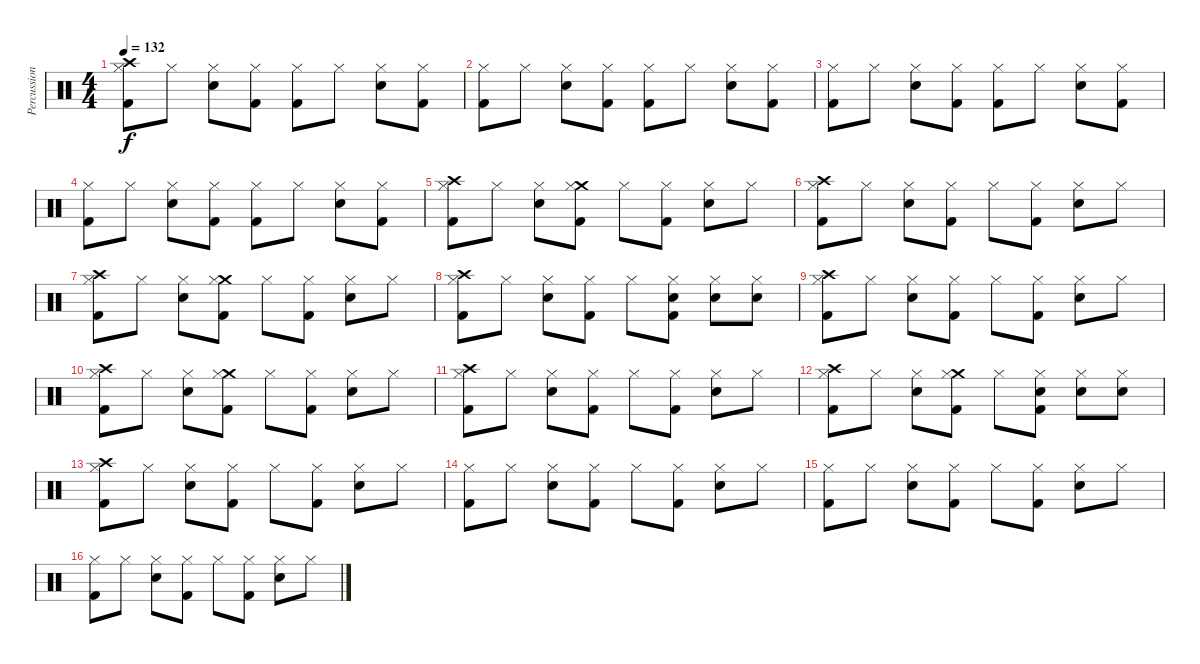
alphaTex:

\track ("Percussion" "Percussion") {instrument percussion}
\staff {score}
\articulation defaults
\ts (4 4)
\tempo 132
\clef neutral
\ks c
("Crash high (hit)" "Hi-Hat (closed)" "Kick (hit) 2").8{dy f} "Hi-Hat (closed)".8 ("Hi-Hat (closed)" "Snare (hit) 2").8 ("Hi-Hat (closed)" "Kick (hit) 2").8 ("Hi-Hat (closed)" "Kick (hit) 2").8 "Hi-Hat (closed)".8 ("Hi-Hat (closed)" "Snare (hit) 2").8 ("Hi-Hat (closed)" "Kick (hit) 2").8 |
("Hi-Hat (closed)" "Kick (hit) 2").8 "Hi-Hat (closed)".8 ("Hi-Hat (closed)" "Snare (hit) 2").8 ("Hi-Hat (closed)" "Kick (hit) 2").8 ("Hi-Hat (closed)" "Kick (hit) 2").8 "Hi-Hat (closed)".8 ("Hi-Hat (closed)" "Snare (hit) 2").8 ("Hi-Hat (closed)" "Kick (hit) 2").8 |
("Hi-Hat (closed)" "Kick (hit) 2").8 "Hi-Hat (closed)".8 ("Hi-Hat (closed)" "Snare (hit) 2").8 ("Hi-Hat (closed)" "Kick (hit) 2").8 ("Hi-Hat (closed)" "Kick (hit) 2").8 "Hi-Hat (closed)".8 ("Hi-Hat (closed)" "Snare (hit) 2").8 ("Hi-Hat (closed)" "Kick (hit) 2").8 |
("Hi-Hat (closed)" "Kick (hit) 2").8 "Hi-Hat (closed)".8 ("Hi-Hat (closed)" "Snare (hit) 2").8 ("Hi-Hat (closed)" "Kick (hit) 2").8 ("Hi-Hat (closed)" "Kick (hit) 2").8 "Hi-Hat (closed)".8 ("Hi-Hat (closed)" "Snare (hit) 2").8 ("Hi-Hat (closed)" "Kick (hit) 2").8 |
("Crash high (hit)" "Hi-Hat (closed)" "Kick (hit) 2").8 "Hi-Hat (closed)".8 ("Hi-Hat (closed)" "Snare (hit) 2").8 ("Crash medium (hit)" "Hi-Hat (closed)" "Kick (hit) 2").8 "Hi-Hat (closed)".8 ("Hi-Hat (closed)" "Kick (hit) 2").8 ("Hi-Hat (closed)" "Snare (hit) 2").8 "Hi-Hat (closed)".8 |
("Crash high (hit)" "Hi-Hat (closed)" "Kick (hit) 2").8 "Hi-Hat (closed)".8 ("Hi-Hat (closed)" "Snare (hit) 2").8 ("Hi-Hat (closed)" "Kick (hit) 2").8 "Hi-Hat (closed)".8 ("Hi-Hat (closed)" "Kick (hit) 2").8 ("Hi-Hat (closed)" "Snare (hit) 2").8 "Hi-Hat (closed)".8 |
("Crash high (hit)" "Hi-Hat (closed)" "Kick (hit) 2").8 "Hi-Hat (closed)".8 ("Hi-Hat (closed)" "Snare (hit) 2").8 ("Crash medium (hit)" "Hi-Hat (closed)" "Kick (hit) 2").8 "Hi-Hat (closed)".8 ("Hi-Hat (closed)" "Kick (hit) 2").8 ("Hi-Hat (closed)" "Snare (hit) 2").8 "Hi-Hat (closed)".8 |
("Crash high (hit)" "Hi-Hat (closed)" "Kick (hit) 2").8 "Hi-Hat (closed)".8 ("Hi-Hat (closed)" "Snare (hit) 2").8 ("Hi-Hat (closed)" "Kick (hit) 2").8 "Hi-Hat (closed)".8 ("Hi-Hat (closed)" "Snare (hit) 2" "Kick (hit) 2").8 ("Hi-Hat (closed)" "Snare (hit) 2").8 ("Hi-Hat (closed)" "Snare (hit) 2").8 |
("Crash high (hit)" "Hi-Hat (closed)" "Kick (hit) 2").8 "Hi-Hat (closed)".8 ("Hi-Hat (closed)" "Snare (hit) 2").8 ("Hi-Hat (closed)" "Kick (hit) 2").8 "Hi-Hat (closed)".8 ("Hi-Hat (closed)" "Kick (hit) 2").8 ("Hi-Hat (closed)" "Snare (hit) 2").8 "Hi-Hat (closed)".8 |
("Crash high (hit)" "Hi-Hat (closed)" "Kick (hit) 2").8 "Hi-Hat (closed)".8 ("Hi-Hat (closed)" "Snare (hit) 2").8 ("Crash medium (hit)" "Hi-Hat (closed)" "Kick (hit) 2").8 "Hi-Hat (closed)".8 ("Hi-Hat (closed)" "Kick (hit) 2").8 ("Hi-Hat (closed)" "Snare (hit) 2").8 "Hi-Hat (closed)".8 |
("Crash high (hit)" "Hi-Hat (closed)" "Kick (hit) 2").8 "Hi-Hat (closed)".8 ("Hi-Hat (closed)" "Snare (hit) 2").8 ("Hi-Hat (closed)" "Kick (hit) 2").8 "Hi-Hat (closed)".8 ("Hi-Hat (closed)" "Kick (hit) 2").8 ("Hi-Hat (closed)" "Snare (hit) 2").8 "Hi-Hat (closed)".8 |
("Crash high (hit)" "Hi-Hat (closed)" "Kick (hit) 2").8 "Hi-Hat (closed)".8 ("Hi-Hat (closed)" "Snare (hit) 2").8 ("Crash medium (hit)" "Hi-Hat (closed)" "Kick (hit) 2").8 "Hi-Hat (closed)".8 ("Hi-Hat (closed)" "Snare (hit) 2" "Kick (hit) 2").8 ("Hi-Hat (closed)" "Snare (hit) 2").8 ("Hi-Hat (closed)" "Snare (hit) 2").8 |
("Crash high (hit)" "Hi-Hat (closed)" "Kick (hit) 2").8 "Hi-Hat (closed)".8 ("Hi-Hat (closed)" "Snare (hit) 2").8 ("Hi-Hat (closed)" "Kick (hit) 2").8 "Hi-Hat (closed)".8 ("Hi-Hat (closed)" "Kick (hit) 2").8 ("Hi-Hat (closed)" "Snare (hit) 2").8 "Hi-Hat (closed)".8 |
("Hi-Hat (closed)" "Kick (hit) 2").8 "Hi-Hat (closed)".8 ("Hi-Hat (closed)" "Snare (hit) 2").8 ("Hi-Hat (closed)" "Kick (hit) 2").8 "Hi-Hat (closed)".8 ("Hi-Hat (closed)" "Kick (hit) 2").8 ("Hi-Hat (closed)" "Snare (hit) 2").8 "Hi-Hat (closed)".8 |
("Hi-Hat (closed)" "Kick (hit) 2").8 "Hi-Hat (closed)".8 ("Hi-Hat (closed)" "Snare (hit) 2").8 ("Hi-Hat (closed)" "Kick (hit) 2").8 "Hi-Hat (closed)".8 ("Hi-Hat (closed)" "Kick (hit) 2").8 ("Hi-Hat (closed)" "Snare (hit) 2").8 "Hi-Hat (closed)".8 |
("Hi-Hat (closed)" "Kick (hit) 2").8 "Hi-Hat (closed)".8 ("Hi-Hat (closed)" "Snare (hit) 2").8 ("Hi-Hat (closed)" "Kick (hit) 2").8 "Hi-Hat (closed)".8 ("Hi-Hat (closed)" "Kick (hit) 2").8 ("Hi-Hat (closed)" "Snare (hit) 2").8 "Hi-Hat (closed)".8
